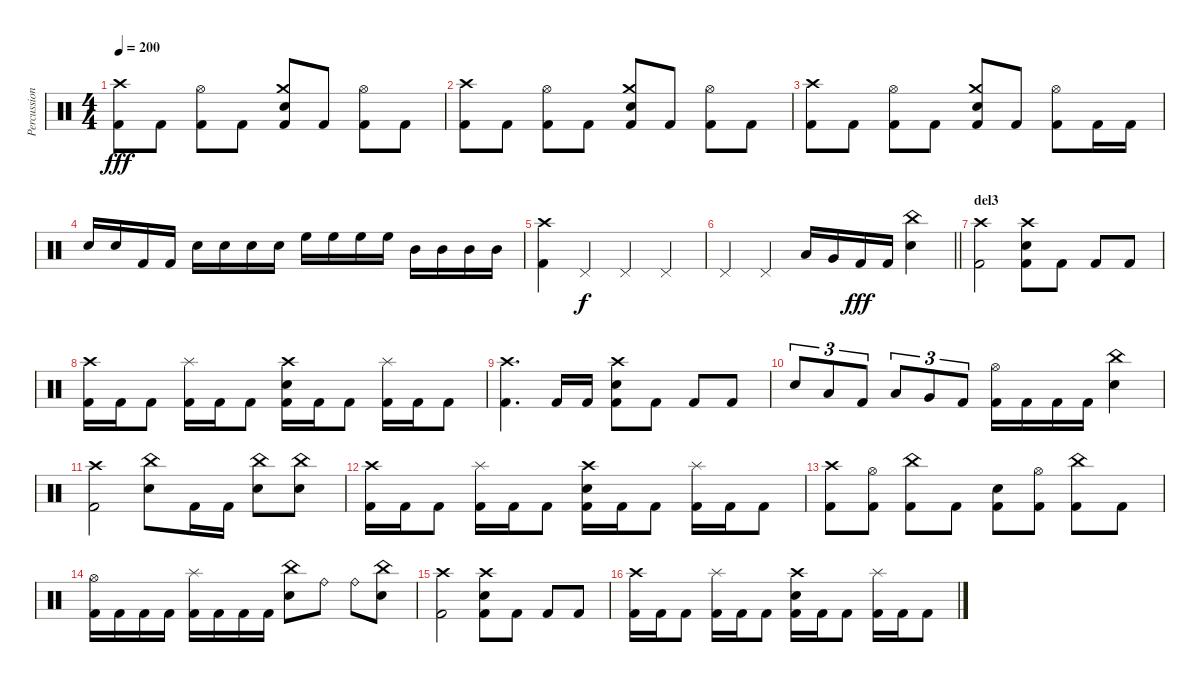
\track ("Percussion" "Percussion") {instrument percussion}
\staff {score}
\articulation defaults
\ts (4 4)
\tempo 200
\clef neutral
\ks c
("Crash high (hit)" "Kick (hit) 2").8{dy fff} "Kick (hit) 2".8 ("Hi-Hat (open)" "Kick (hit) 2").8 "Kick (hit) 2".8 ("Crash medium (hit)" "Snare (hit) 2" "Kick (hit) 2").8 "Kick (hit) 2".8 ("Hi-Hat (open)" "Kick (hit) 2").8 "Kick (hit) 2".8 |
("Crash high (hit)" "Kick (hit) 2").8 "Kick (hit) 2".8 ("Hi-Hat (open)" "Kick (hit) 2").8 "Kick (hit) 2".8 ("Crash medium (hit)" "Snare (hit) 2" "Kick (hit) 2").8 "Kick (hit) 2".8 ("Hi-Hat (open)" "Kick (hit) 2").8 "Kick (hit) 2".8 |
("Crash high (hit)" "Kick (hit) 2").8 "Kick (hit) 2".8 ("Hi-Hat (open)" "Kick (hit) 2").8 "Kick (hit) 2".8 ("Crash medium (hit)" "Snare (hit) 2" "Kick (hit) 2").8 "Kick (hit) 2".8 ("Hi-Hat (open)" "Kick (hit) 2").8 "Kick (hit) 2".16 "Kick (hit) 2".16 |
"Snare (hit) 2".16 "Snare (hit) 2".16 "Kick (hit) 2".16 "Kick (hit) 2".16 "Snare (hit) 2".16 "Snare (hit) 2".16 "Snare (hit) 2".16 "Snare (hit) 2".16 "High Floor Tom (hit)".16 "High Floor Tom (hit)".16 "High Floor Tom (hit)".16 "High Floor Tom (hit)".16 "Mid Tom (hit)".16 "Mid Tom (hit)".16 "Mid Tom (hit)".16 "Mid Tom (hit)".16 |
("Crash high (hit)" "Kick (hit) 2").4 "Pedal Hi-Hat (hit)".4{dy f} "Pedal Hi-Hat (hit)".4 "Pedal Hi-Hat (hit)".4 |
\barLineRight lightlight "Pedal Hi-Hat (hit)".4 "Pedal Hi-Hat (hit)".4 "Low Floor Tom (hit)".16 "Very Low Tom (hit)".16 "Kick (hit) 2".16{dy fff} "Kick (hit) 2".16
("China (hit)" "Snare (hit) 2").4 |
\section ("" "del3")
("Crash high (hit)" "Kick (hit) 2").2 ("Crash high (hit)" "Snare (hit) 2" "Kick (hit) 2").8 "Kick (hit) 2".8 "Kick (hit) 2".8 "Kick (hit) 2".8 |
("Crash high (hit)" "Kick (hit) 2").16 "Kick (hit) 2".16 "Kick (hit) 2".8 ("Splash (hit)" "Kick (hit) 2").16 "Kick (hit) 2".16 "Kick (hit) 2".8 ("Crash high (hit)" "Snare (hit) 2" "Kick (hit) 2").16 "Kick (hit) 2".16 "Kick (hit) 2".8 ("Splash (hit)" "Kick (hit) 2").16 "Kick (hit) 2".16 "Kick (hit) 2".8 |
("Crash high (hit)" "Kick (hit) 2").4{d} "Kick (hit) 2".16 "Kick (hit) 2".16 ("Crash high (hit)" "Snare (hit) 2" "Kick (hit) 2").8 "Kick (hit) 2".8 "Kick (hit) 2".8 "Kick (hit) 2".8 |
"Snare (hit) 2".8{tu (3 2)} "Low Tom (hit)".8{tu (3 2)} "Kick (hit) 2".8{tu (3 2)} "Low Floor Tom (hit)".8{tu (3 2)} "Very Low Tom (hit)".8{tu (3 2)} "Kick (hit) 2".8{tu (3 2)} ("Hi-Hat (open)" "Kick (hit) 2").16 "Kick (hit) 2".16 "Kick (hit) 2".16 "Kick (hit) 2".16 ("China (hit)" "Snare (hit) 2").4 |
("Crash high (hit)" "Kick (hit) 2").2 ("China (hit)" "Snare (hit) 2").8 "Kick (hit) 2".16 "Kick (hit) 2".16 ("China (hit)" "Snare (hit) 2").8 ("China (hit)" "Snare (hit) 2").8 |
("Crash high (hit)" "Kick (hit) 2").16 "Kick (hit) 2".16 "Kick (hit) 2".8 ("Splash (hit)" "Kick (hit) 2").16 "Kick (hit) 2".16 "Kick (hit) 2".8 ("Crash high (hit)" "Snare (hit) 2" "Kick (hit) 2").16 "Kick (hit) 2".16 "Kick (hit) 2".8 ("Splash (hit)" "Kick (hit) 2").16 "Kick (hit) 2".16 "Kick (hit) 2".8 |
("Crash high (hit)" "Kick (hit) 2").8 ("Hi-Hat (open)" "Kick (hit) 2").8 ("China (hit)" "Kick (hit) 2").8 "Kick (hit) 2".8 ("Snare (hit) 2" "Kick (hit) 2").8 ("Hi-Hat (open)" "Kick (hit) 2").8 ("China (hit)" "Kick (hit) 2").8 "Kick (hit) 2".8 |
("Hi-Hat (open)" "Kick (hit) 2").16 "Kick (hit) 2".16 "Kick (hit) 2".16 "Kick (hit) 2".16 ("Splash (hit)" "Kick (hit) 2").16 "Kick (hit) 2".16 "Kick (hit) 2".16 "Kick (hit) 2".16 ("China (hit)" "Snare (hit) 2").8 "Ride (bell)".8 "Ride (bell)".8 ("China (hit)" "Snare (hit) 2").8 |
("Crash high (hit)" "Kick (hit) 2").2 ("Crash high (hit)" "Snare (hit) 2" "Kick (hit) 2").8 "Kick (hit) 2".8 "Kick (hit) 2".8 "Kick (hit) 2".8 |
("Crash high (hit)" "Kick (hit) 2").16 "Kick (hit) 2".16 "Kick (hit) 2".8 ("Splash (hit)" "Kick (hit) 2").16 "Kick (hit) 2".16 "Kick (hit) 2".8 ("Crash high (hit)" "Snare (hit) 2" "Kick (hit) 2").16 "Kick (hit) 2".16 "Kick (hit) 2".8 ("Splash (hit)" "Kick (hit) 2").16 "Kick (hit) 2".16 "Kick (hit) 2".8
